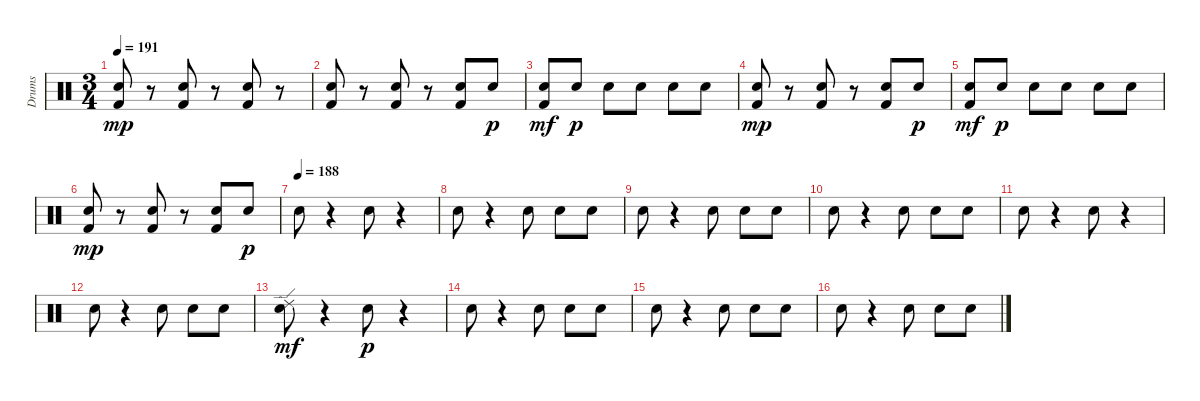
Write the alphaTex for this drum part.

\track ("Drums" "Drums") {instrument percussion}
\staff {score}
\articulation defaults
\ts (3 4)
\tempo 191
\clef neutral
\ks c
("Kick (hit) 2" "Electric Snare (hit)").8{dy mp} r.8 ("Kick (hit) 2" "Electric Snare (hit)").8 r.8 ("Kick (hit) 2" "Electric Snare (hit)").8 r.8 |
("Kick (hit) 2" "Electric Snare (hit)").8 r.8 ("Kick (hit) 2" "Electric Snare (hit)").8 r.8 ("Kick (hit) 2" "Electric Snare (hit)").8 "Electric Snare (hit)".8{dy p} |
("Kick (hit) 2" "Electric Snare (hit)").8{dy mf} "Electric Snare (hit)".8{dy p} "Electric Snare (hit)".8 "Electric Snare (hit)".8 "Electric Snare (hit)".8 "Electric Snare (hit)".8 |
("Kick (hit) 2" "Electric Snare (hit)").8{dy mp} r.8 ("Kick (hit) 2" "Electric Snare (hit)").8 r.8 ("Kick (hit) 2" "Electric Snare (hit)").8 "Electric Snare (hit)".8{dy p} |
("Kick (hit) 2" "Electric Snare (hit)").8{dy mf} "Electric Snare (hit)".8{dy p} "Electric Snare (hit)".8 "Electric Snare (hit)".8 "Electric Snare (hit)".8 "Electric Snare (hit)".8 |
("Kick (hit) 2" "Electric Snare (hit)").8{dy mp} r.8 ("Kick (hit) 2" "Electric Snare (hit)").8 r.8 ("Kick (hit) 2" "Electric Snare (hit)").8 "Electric Snare (hit)".8{dy p} |
\tempo (188)
"Electric Snare (hit)".8 r.4 "Electric Snare (hit)".8 r.4 |
"Electric Snare (hit)".8 r.4 "Electric Snare (hit)".8 "Electric Snare (hit)".8 "Electric Snare (hit)".8 |
"Electric Snare (hit)".8 r.4 "Electric Snare (hit)".8 "Electric Snare (hit)".8 "Electric Snare (hit)".8 |
"Electric Snare (hit)".8 r.4 "Electric Snare (hit)".8 "Electric Snare (hit)".8 "Electric Snare (hit)".8 |
"Electric Snare (hit)".8 r.4 "Electric Snare (hit)".8 r.4 |
"Electric Snare (hit)".8 r.4 "Electric Snare (hit)".8 "Electric Snare (hit)".8 "Electric Snare (hit)".8 |
("Electric Snare (hit)" "Ride (edge) 2").8{dy mf} r.4 "Electric Snare (hit)".8{dy p} r.4 |
"Electric Snare (hit)".8 r.4 "Electric Snare (hit)".8 "Electric Snare (hit)".8 "Electric Snare (hit)".8 |
"Electric Snare (hit)".8 r.4 "Electric Snare (hit)".8 "Electric Snare (hit)".8 "Electric Snare (hit)".8 |
"Electric Snare (hit)".8 r.4 "Electric Snare (hit)".8 "Electric Snare (hit)".8 "Electric Snare (hit)".8
